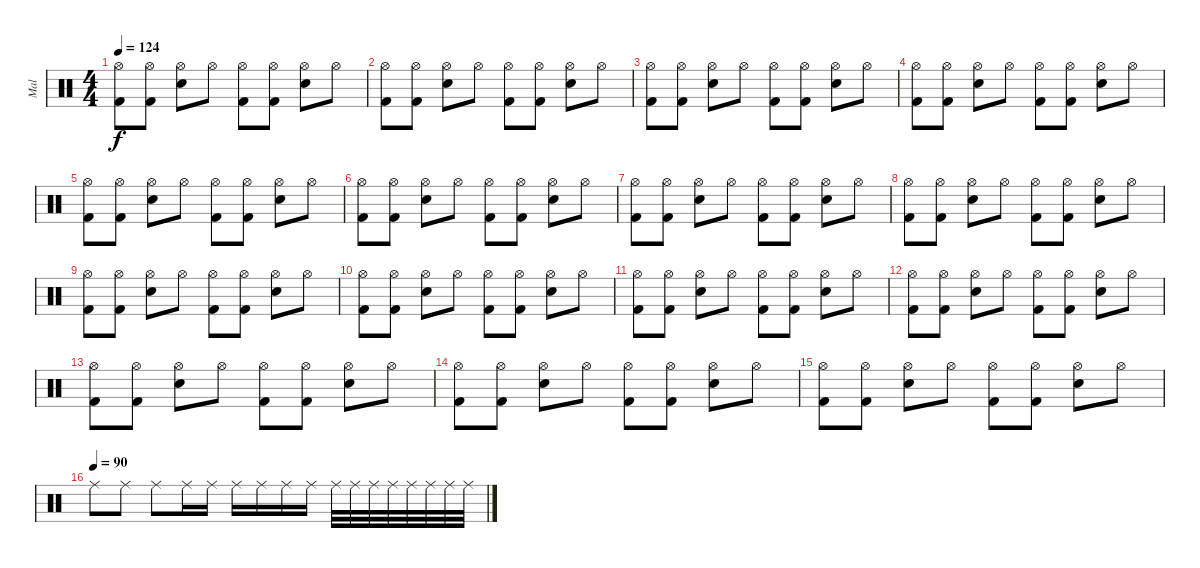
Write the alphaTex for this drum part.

\track ("Mal" "Mal") {instrument percussion}
\staff {score}
\articulation defaults
\ts (4 4)
\tempo 124
\clef neutral
\ks c
("Hi-Hat (open)" "Kick (hit) 2").8{dy f} ("Hi-Hat (open)" "Kick (hit) 2").8 ("Hi-Hat (open)" "Electric Snare (hit)").8 "Hi-Hat (open)".8 ("Hi-Hat (open)" "Kick (hit) 2").8 ("Hi-Hat (open)" "Kick (hit) 2").8 ("Hi-Hat (open)" "Electric Snare (hit)").8 "Hi-Hat (open)".8 |
("Hi-Hat (open)" "Kick (hit) 2").8 ("Hi-Hat (open)" "Kick (hit) 2").8 ("Hi-Hat (open)" "Electric Snare (hit)").8 "Hi-Hat (open)".8 ("Hi-Hat (open)" "Kick (hit) 2").8 ("Hi-Hat (open)" "Kick (hit) 2").8 ("Hi-Hat (open)" "Electric Snare (hit)").8 "Hi-Hat (open)".8 |
("Hi-Hat (open)" "Kick (hit) 2").8 ("Hi-Hat (open)" "Kick (hit) 2").8 ("Hi-Hat (open)" "Electric Snare (hit)").8 "Hi-Hat (open)".8 ("Hi-Hat (open)" "Kick (hit) 2").8 ("Hi-Hat (open)" "Kick (hit) 2").8 ("Hi-Hat (open)" "Electric Snare (hit)").8 "Hi-Hat (open)".8 |
("Hi-Hat (open)" "Kick (hit) 2").8 ("Hi-Hat (open)" "Kick (hit) 2").8 ("Hi-Hat (open)" "Electric Snare (hit)").8 "Hi-Hat (open)".8 ("Hi-Hat (open)" "Kick (hit) 2").8 ("Hi-Hat (open)" "Kick (hit) 2").8 ("Hi-Hat (open)" "Electric Snare (hit)").8 "Hi-Hat (open)".8 |
("Hi-Hat (open)" "Kick (hit) 2").8 ("Hi-Hat (open)" "Kick (hit) 2").8 ("Hi-Hat (open)" "Electric Snare (hit)").8 "Hi-Hat (open)".8 ("Hi-Hat (open)" "Kick (hit) 2").8 ("Hi-Hat (open)" "Kick (hit) 2").8 ("Hi-Hat (open)" "Electric Snare (hit)").8 "Hi-Hat (open)".8 |
("Hi-Hat (open)" "Kick (hit) 2").8 ("Hi-Hat (open)" "Kick (hit) 2").8 ("Hi-Hat (open)" "Electric Snare (hit)").8 "Hi-Hat (open)".8 ("Hi-Hat (open)" "Kick (hit) 2").8 ("Hi-Hat (open)" "Kick (hit) 2").8 ("Hi-Hat (open)" "Electric Snare (hit)").8 "Hi-Hat (open)".8 |
("Hi-Hat (open)" "Kick (hit) 2").8 ("Hi-Hat (open)" "Kick (hit) 2").8 ("Hi-Hat (open)" "Electric Snare (hit)").8 "Hi-Hat (open)".8 ("Hi-Hat (open)" "Kick (hit) 2").8 ("Hi-Hat (open)" "Kick (hit) 2").8 ("Hi-Hat (open)" "Electric Snare (hit)").8 "Hi-Hat (open)".8 |
("Hi-Hat (open)" "Kick (hit) 2").8 ("Hi-Hat (open)" "Kick (hit) 2").8 ("Hi-Hat (open)" "Electric Snare (hit)").8 "Hi-Hat (open)".8 ("Hi-Hat (open)" "Kick (hit) 2").8 ("Hi-Hat (open)" "Kick (hit) 2").8 ("Hi-Hat (open)" "Electric Snare (hit)").8 "Hi-Hat (open)".8 |
("Hi-Hat (open)" "Kick (hit) 2").8 ("Hi-Hat (open)" "Kick (hit) 2").8 ("Hi-Hat (open)" "Electric Snare (hit)").8 "Hi-Hat (open)".8 ("Hi-Hat (open)" "Kick (hit) 2").8 ("Hi-Hat (open)" "Kick (hit) 2").8 ("Hi-Hat (open)" "Electric Snare (hit)").8 "Hi-Hat (open)".8 |
("Hi-Hat (open)" "Kick (hit) 2").8 ("Hi-Hat (open)" "Kick (hit) 2").8 ("Hi-Hat (open)" "Electric Snare (hit)").8 "Hi-Hat (open)".8 ("Hi-Hat (open)" "Kick (hit) 2").8 ("Hi-Hat (open)" "Kick (hit) 2").8 ("Hi-Hat (open)" "Electric Snare (hit)").8 "Hi-Hat (open)".8 |
("Hi-Hat (open)" "Kick (hit) 2").8 ("Hi-Hat (open)" "Kick (hit) 2").8 ("Hi-Hat (open)" "Electric Snare (hit)").8 "Hi-Hat (open)".8 ("Hi-Hat (open)" "Kick (hit) 2").8 ("Hi-Hat (open)" "Kick (hit) 2").8 ("Hi-Hat (open)" "Electric Snare (hit)").8 "Hi-Hat (open)".8 |
("Hi-Hat (open)" "Kick (hit) 2").8 ("Hi-Hat (open)" "Kick (hit) 2").8 ("Hi-Hat (open)" "Electric Snare (hit)").8 "Hi-Hat (open)".8 ("Hi-Hat (open)" "Kick (hit) 2").8 ("Hi-Hat (open)" "Kick (hit) 2").8 ("Hi-Hat (open)" "Electric Snare (hit)").8 "Hi-Hat (open)".8 |
("Hi-Hat (open)" "Kick (hit) 2").8 ("Hi-Hat (open)" "Kick (hit) 2").8 ("Hi-Hat (open)" "Electric Snare (hit)").8 "Hi-Hat (open)".8 ("Hi-Hat (open)" "Kick (hit) 2").8 ("Hi-Hat (open)" "Kick (hit) 2").8 ("Hi-Hat (open)" "Electric Snare (hit)").8 "Hi-Hat (open)".8 |
("Hi-Hat (open)" "Kick (hit) 2").8 ("Hi-Hat (open)" "Kick (hit) 2").8 ("Hi-Hat (open)" "Electric Snare (hit)").8 "Hi-Hat (open)".8 ("Hi-Hat (open)" "Kick (hit) 2").8 ("Hi-Hat (open)" "Kick (hit) 2").8 ("Hi-Hat (open)" "Electric Snare (hit)").8 "Hi-Hat (open)".8 |
("Hi-Hat (open)" "Kick (hit) 2").8 ("Hi-Hat (open)" "Kick (hit) 2").8 ("Hi-Hat (open)" "Electric Snare (hit)").8 "Hi-Hat (open)".8 ("Hi-Hat (open)" "Kick (hit) 2").8 ("Hi-Hat (open)" "Kick (hit) 2").8 ("Hi-Hat (open)" "Electric Snare (hit)").8 "Hi-Hat (open)".8 |
\tempo (90)
"Ride (middle)".8 "Ride (middle)".8 "Ride (middle)".8 "Ride (middle)".16 "Ride (middle)".16 "Ride (middle)".16 "Ride (middle)".16 "Ride (middle)".16 "Ride (middle)".16 "Ride (middle)".32 "Ride (middle)".32 "Ride (middle)".32 "Ride (middle)".32 "Ride (middle)".32 "Ride (middle)".32 "Ride (middle)".32 "Ride (middle)".32
